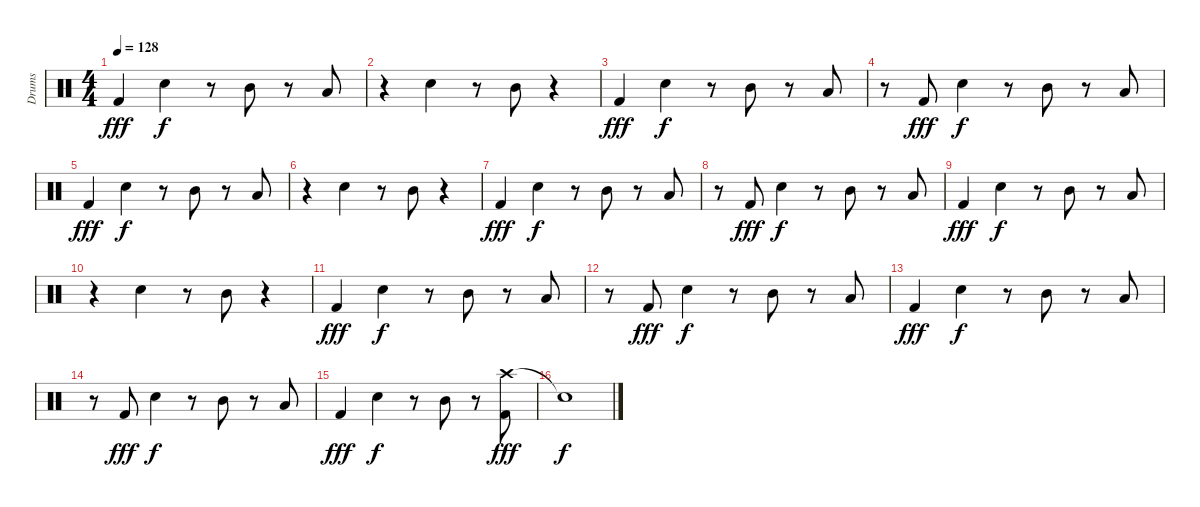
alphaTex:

\track ("Drums" "Drums") {instrument percussion}
\staff {score}
\articulation defaults
\ts (4 4)
\tempo 128
\clef neutral
\ks c "Kick (hit) 2".4{dy fff} "Electric Snare (hit)".4{dy f}
r.8 "Mid Tom (hit)".8 r.8 "Low Tom (hit)".8 |
r.4 "Electric Snare (hit)".4 r.8 "Mid Tom (hit)".8 r.4 |
"Kick (hit) 2".4{dy fff} "Electric Snare (hit)".4{dy f} r.8 "Mid Tom (hit)".8 r.8 "Low Tom (hit)".8 |
r.8 "Kick (hit) 2".8{dy fff} "Electric Snare (hit)".4{dy f} r.8 "Mid Tom (hit)".8 r.8 "Low Tom (hit)".8 |
"Kick (hit) 2".4{dy fff} "Electric Snare (hit)".4{dy f} r.8 "Mid Tom (hit)".8 r.8 "Low Tom (hit)".8 |
r.4 "Electric Snare (hit)".4 r.8 "Mid Tom (hit)".8 r.4 |
"Kick (hit) 2".4{dy fff} "Electric Snare (hit)".4{dy f} r.8 "Mid Tom (hit)".8 r.8 "Low Tom (hit)".8 |
r.8 "Kick (hit) 2".8{dy fff} "Electric Snare (hit)".4{dy f} r.8 "Mid Tom (hit)".8 r.8 "Low Tom (hit)".8 |
"Kick (hit) 2".4{dy fff} "Electric Snare (hit)".4{dy f} r.8 "Mid Tom (hit)".8 r.8 "Low Tom (hit)".8 |
r.4 "Electric Snare (hit)".4 r.8 "Mid Tom (hit)".8 r.4 |
"Kick (hit) 2".4{dy fff} "Electric Snare (hit)".4{dy f} r.8 "Mid Tom (hit)".8 r.8 "Low Tom (hit)".8 |
r.8 "Kick (hit) 2".8{dy fff} "Electric Snare (hit)".4{dy f} r.8 "Mid Tom (hit)".8 r.8 "Low Tom (hit)".8 |
"Kick (hit) 2".4{dy fff} "Electric Snare (hit)".4{dy f} r.8 "Mid Tom (hit)".8 r.8 "Low Tom (hit)".8 |
r.8 "Kick (hit) 2".8{dy fff} "Electric Snare (hit)".4{dy f} r.8 "Mid Tom (hit)".8 r.8 "Low Tom (hit)".8 |
"Kick (hit) 2".4{dy fff} "Electric Snare (hit)".4{dy f} r.8 "Mid Tom (hit)".8 r.8 ("Crash high (hit)" "Kick (hit) 2").8{dy fff} |
"Snare (hit)"{t}.1{dy f}
